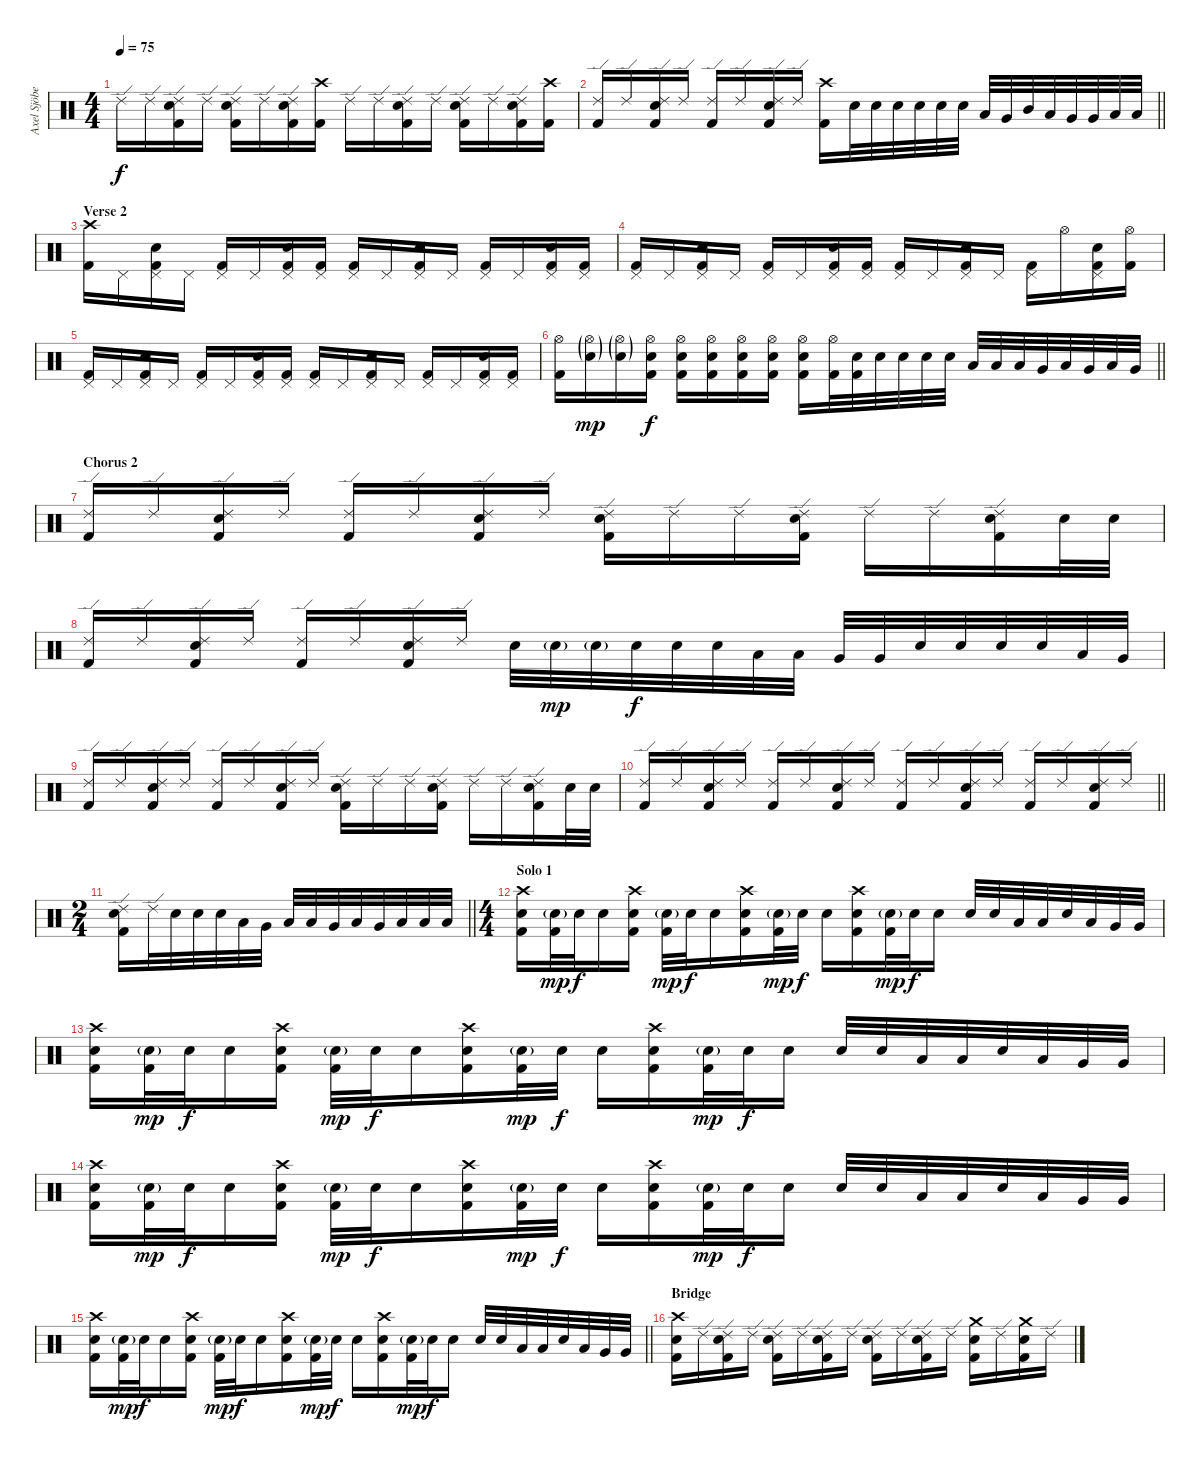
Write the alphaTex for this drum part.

\track ("Axel Sjöberg" "Axel Sjöbe") {instrument percussion}
\staff {score}
\articulation defaults
\ts (4 4)
\tempo 75
\clef neutral
\ks c "Ride (edge) 2".16{dy f} "Ride (edge) 2".16
("Kick (hit) 2" "Snare (hit) 2" "Ride (edge) 2").16 "Ride (edge) 2".16 ("Kick (hit) 2" "Snare (hit) 2" "Ride (edge) 2").16 "Ride (edge) 2".16 ("Kick (hit) 2" "Snare (hit) 2" "Ride (edge) 2").16 ("Kick (hit) 2" "Crash high (hit)").16 "Ride (edge) 2".16 "Ride (edge) 2".16 ("Kick (hit) 2" "Snare (hit) 2" "Ride (edge) 2").16 "Ride (edge) 2".16 ("Kick (hit) 2" "Snare (hit) 2" "Ride (edge) 2").16 "Ride (edge) 2".16 ("Kick (hit) 2" "Snare (hit) 2" "Ride (edge) 2").16 ("Kick (hit) 2" "Crash high (hit)").16 |
\barLineRight lightlight
("Kick (hit) 2" "Ride (edge) 2").16 "Ride (edge) 2".16 ("Kick (hit) 2" "Snare (hit) 2" "Ride (edge) 2").16 "Ride (edge) 2".16 ("Kick (hit) 2" "Ride (edge) 2").16 "Ride (edge) 2".16 ("Kick (hit) 2" "Snare (hit) 2" "Ride (edge) 2").16 "Ride (edge) 2".16 ("Kick (hit) 2" "Crash high (hit)").16 "Snare (hit) 2".32 "Snare (hit) 2".32 "Snare (hit) 2".32 "Snare (hit) 2".32 "Snare (hit) 2".32 "Snare (hit) 2".32 "Low Tom (hit)".32 "Very Low Tom (hit)".32 "Mid Tom (hit)".32 "Low Tom (hit)".32 "Very Low Tom (hit)".32 "Very Low Tom (hit)".32 "Low Floor Tom (hit)".32 "Low Floor Tom (hit)".32 |
\section ("" "Verse 2")
("Kick (hit) 2" "Crash high (hit)").16 "Pedal Hi-Hat (hit)".16 ("Kick (hit) 2" "Snare (hit) 2" "Pedal Hi-Hat (hit)").16 "Pedal Hi-Hat (hit)".16 ("Kick (hit) 2" "Pedal Hi-Hat (hit)").16 "Pedal Hi-Hat (hit)".16 ("Kick (hit) 2" "Snare (hit) 2" "Pedal Hi-Hat (hit)").16 ("Kick (hit) 2" "Pedal Hi-Hat (hit)").16 ("Kick (hit) 2" "Pedal Hi-Hat (hit)").16 "Pedal Hi-Hat (hit)".16 ("Kick (hit) 2" "Snare (hit) 2" "Pedal Hi-Hat (hit)").16 "Pedal Hi-Hat (hit)".16 ("Kick (hit) 2" "Pedal Hi-Hat (hit)").16 "Pedal Hi-Hat (hit)".16 ("Kick (hit) 2" "Snare (hit) 2" "Pedal Hi-Hat (hit)").16 ("Kick (hit) 2" "Pedal Hi-Hat (hit)").16 |
("Kick (hit) 2" "Pedal Hi-Hat (hit)").16 "Pedal Hi-Hat (hit)".16 ("Kick (hit) 2" "Snare (hit) 2" "Pedal Hi-Hat (hit)").16 "Pedal Hi-Hat (hit)".16 ("Kick (hit) 2" "Pedal Hi-Hat (hit)").16 "Pedal Hi-Hat (hit)".16 ("Kick (hit) 2" "Snare (hit) 2" "Pedal Hi-Hat (hit)").16 ("Kick (hit) 2" "Pedal Hi-Hat (hit)").16 ("Kick (hit) 2" "Pedal Hi-Hat (hit)").16 "Pedal Hi-Hat (hit)".16 ("Kick (hit) 2" "Snare (hit) 2" "Pedal Hi-Hat (hit)").16 "Pedal Hi-Hat (hit)".16 ("Kick (hit) 2" "Pedal Hi-Hat (hit)").16 "Hi-Hat (open)".16 ("Kick (hit) 2" "Snare (hit) 2" "Pedal Hi-Hat (hit)").16 ("Kick (hit) 2" "Hi-Hat (open)").16 |
("Kick (hit) 2" "Pedal Hi-Hat (hit)").16 "Pedal Hi-Hat (hit)".16 ("Kick (hit) 2" "Snare (hit) 2" "Pedal Hi-Hat (hit)").16 "Pedal Hi-Hat (hit)".16 ("Kick (hit) 2" "Pedal Hi-Hat (hit)").16 "Pedal Hi-Hat (hit)".16 ("Kick (hit) 2" "Snare (hit) 2" "Pedal Hi-Hat (hit)").16 ("Kick (hit) 2" "Pedal Hi-Hat (hit)").16 ("Kick (hit) 2" "Pedal Hi-Hat (hit)").16 "Pedal Hi-Hat (hit)".16 ("Kick (hit) 2" "Snare (hit) 2" "Pedal Hi-Hat (hit)").16 "Pedal Hi-Hat (hit)".16 ("Kick (hit) 2" "Pedal Hi-Hat (hit)").16 "Pedal Hi-Hat (hit)".16 ("Kick (hit) 2" "Snare (hit) 2" "Pedal Hi-Hat (hit)").16 ("Kick (hit) 2" "Pedal Hi-Hat (hit)").16 |
\barLineRight lightlight
("Kick (hit) 2" "Hi-Hat (open)").16 ("Snare (hit) 2"{g} "Hi-Hat (open)"{g}).16{dy mp} ("Snare (hit) 2"{g} "Hi-Hat (open)"{g}).16 ("Kick (hit) 2" "Snare (hit) 2" "Hi-Hat (open)").16{dy f} ("Kick (hit) 2" "Snare (hit) 2" "Hi-Hat (open)").16 ("Kick (hit) 2" "Snare (hit) 2" "Hi-Hat (open)").16 ("Kick (hit) 2" "Snare (hit) 2" "Hi-Hat (open)").16 ("Kick (hit) 2" "Snare (hit) 2" "Hi-Hat (open)").16 ("Kick (hit) 2" "Snare (hit) 2" "Hi-Hat (open)").16 ("Kick (hit) 2" "Hi-Hat (open)").32 ("Kick (hit) 2" "Snare (hit) 2").32 "Snare (hit) 2".32 "Snare (hit) 2".32 "Snare (hit) 2".32 "Snare (hit) 2".32 "Low Tom (hit)".32 "Low Floor Tom (hit)".32 "Low Tom (hit)".32 "Very Low Tom (hit)".32 "Low Tom (hit)".32 "Very Low Tom (hit)".32 "Low Floor Tom (hit)".32 "Very Low Tom (hit)".32 |
\section ("" "Chorus 2")
("Kick (hit) 2" "Ride (edge) 2").16 "Ride (edge) 2".16 ("Kick (hit) 2" "Snare (hit) 2" "Ride (edge) 2").16 "Ride (edge) 2".16 ("Kick (hit) 2" "Ride (edge) 2").16 "Ride (edge) 2".16 ("Kick (hit) 2" "Snare (hit) 2" "Ride (edge) 2").16 "Ride (edge) 2".16 ("Kick (hit) 2" "Snare (hit) 2" "Ride (edge) 2").16 "Ride (edge) 2".16 "Ride (edge) 2".16 ("Kick (hit) 2" "Snare (hit) 2" "Ride (edge) 2").16 "Ride (edge) 2".16 "Ride (edge) 2".16 ("Kick (hit) 2" "Snare (hit) 2" "Ride (edge) 2").16 "Snare (hit) 2".32 "Snare (hit) 2".32 |
("Kick (hit) 2" "Ride (edge) 2").16 "Ride (edge) 2".16 ("Kick (hit) 2" "Snare (hit) 2" "Ride (edge) 2").16 "Ride (edge) 2".16 ("Kick (hit) 2" "Ride (edge) 2").16 "Ride (edge) 2".16 ("Kick (hit) 2" "Snare (hit) 2" "Ride (edge) 2").16 "Ride (edge) 2".16 "Snare (hit) 2".32 "Snare (hit) 2"{g}.32{dy mp} "Snare (hit) 2"{g}.32 "Snare (hit) 2".32{dy f} "Snare (hit) 2".32 "Snare (hit) 2".32 "Low Tom (hit)".32 "Low Floor Tom (hit)".32 "Very Low Tom (hit)".32 "Very Low Tom (hit)".32 "Snare (hit) 2".32 "Snare (hit) 2".32 "Snare (hit) 2".32 "Snare (hit) 2".32 "Low Tom (hit)".32 "Very Low Tom (hit)".32 |
("Kick (hit) 2" "Ride (edge) 2").16 "Ride (edge) 2".16 ("Kick (hit) 2" "Snare (hit) 2" "Ride (edge) 2").16 "Ride (edge) 2".16 ("Kick (hit) 2" "Ride (edge) 2").16 "Ride (edge) 2".16 ("Kick (hit) 2" "Snare (hit) 2" "Ride (edge) 2").16 "Ride (edge) 2".16 ("Kick (hit) 2" "Snare (hit) 2" "Ride (edge) 2").16 "Ride (edge) 2".16 "Ride (edge) 2".16 ("Kick (hit) 2" "Snare (hit) 2" "Ride (edge) 2").16 "Ride (edge) 2".16 "Ride (edge) 2".16 ("Kick (hit) 2" "Snare (hit) 2" "Ride (edge) 2").16 "Snare (hit) 2".32 "Snare (hit) 2".32 |
\barLineRight lightlight
("Kick (hit) 2" "Ride (edge) 2").16 "Ride (edge) 2".16 ("Kick (hit) 2" "Snare (hit) 2" "Ride (edge) 2").16 "Ride (edge) 2".16 ("Kick (hit) 2" "Ride (edge) 2").16 "Ride (edge) 2".16 ("Kick (hit) 2" "Snare (hit) 2" "Ride (edge) 2").16 "Ride (edge) 2".16 ("Kick (hit) 2" "Ride (edge) 2").16 "Ride (edge) 2".16 ("Kick (hit) 2" "Snare (hit) 2" "Ride (edge) 2").16 "Ride (edge) 2".16 ("Kick (hit) 2" "Ride (edge) 2").16 "Ride (edge) 2".16 ("Kick (hit) 2" "Snare (hit) 2" "Ride (edge) 2").16 "Ride (edge) 2".16 |
\ts (2 4)
\barLineRight lightlight
("Kick (hit) 2" "Snare (hit) 2" "Ride (edge) 2").16 "Ride (edge) 2".32 "Snare (hit) 2".32 "Snare (hit) 2".32 "Snare (hit) 2".32 "Low Tom (hit)".32 "Very Low Tom (hit)".32 "Low Floor Tom (hit)".32 "Low Tom (hit)".32 "Very Low Tom (hit)".32 "Low Tom (hit)".32 "Very Low Tom (hit)".32 "Low Floor Tom (hit)".32 "Low Floor Tom (hit)".32 "Low Floor Tom (hit)".32 |
\ts (4 4)
\section ("" "Solo 1")
("Kick (hit) 2" "Snare (hit) 2" "Crash high (hit)").16 ("Kick (hit) 2" "Snare (hit) 2"{g}).32{dy mp} "Snare (hit) 2".32{dy f} "Snare (hit) 2".16 ("Kick (hit) 2" "Snare (hit) 2" "Crash high (hit)").16 ("Kick (hit) 2" "Snare (hit) 2"{g}).32{dy mp} "Snare (hit) 2".32{dy f} "Snare (hit) 2".16 ("Kick (hit) 2" "Snare (hit) 2" "Crash high (hit)").16 ("Kick (hit) 2" "Snare (hit) 2"{g}).32{dy mp} "Snare (hit) 2".32{dy f} "Snare (hit) 2".16 ("Kick (hit) 2" "Snare (hit) 2" "Crash high (hit)").16 ("Kick (hit) 2" "Snare (hit) 2"{g}).32{dy mp} "Snare (hit) 2".32{dy f} "Snare (hit) 2".16 "Snare (hit) 2".32 "Snare (hit) 2".32 "Low Tom (hit)".32 "Low Tom (hit)".32 "Snare (hit) 2".32 "Low Tom (hit)".32 "Very Low Tom (hit)".32 "Very Low Tom (hit)".32 |
("Kick (hit) 2" "Snare (hit) 2" "Crash high (hit)").16 ("Kick (hit) 2" "Snare (hit) 2"{g}).32{dy mp} "Snare (hit) 2".32{dy f} "Snare (hit) 2".16 ("Kick (hit) 2" "Snare (hit) 2" "Crash high (hit)").16 ("Kick (hit) 2" "Snare (hit) 2"{g}).32{dy mp} "Snare (hit) 2".32{dy f} "Snare (hit) 2".16 ("Kick (hit) 2" "Snare (hit) 2" "Crash high (hit)").16 ("Kick (hit) 2" "Snare (hit) 2"{g}).32{dy mp} "Snare (hit) 2".32{dy f} "Snare (hit) 2".16 ("Kick (hit) 2" "Snare (hit) 2" "Crash high (hit)").16 ("Kick (hit) 2" "Snare (hit) 2"{g}).32{dy mp} "Snare (hit) 2".32{dy f} "Snare (hit) 2".16 "Snare (hit) 2".32 "Snare (hit) 2".32 "Low Tom (hit)".32 "Low Tom (hit)".32 "Snare (hit) 2".32 "Low Tom (hit)".32 "Very Low Tom (hit)".32 "Very Low Tom (hit)".32 |
("Kick (hit) 2" "Snare (hit) 2" "Crash high (hit)").16 ("Kick (hit) 2" "Snare (hit) 2"{g}).32{dy mp} "Snare (hit) 2".32{dy f} "Snare (hit) 2".16 ("Kick (hit) 2" "Snare (hit) 2" "Crash high (hit)").16 ("Kick (hit) 2" "Snare (hit) 2"{g}).32{dy mp} "Snare (hit) 2".32{dy f} "Snare (hit) 2".16 ("Kick (hit) 2" "Snare (hit) 2" "Crash high (hit)").16 ("Kick (hit) 2" "Snare (hit) 2"{g}).32{dy mp} "Snare (hit) 2".32{dy f} "Snare (hit) 2".16 ("Kick (hit) 2" "Snare (hit) 2" "Crash high (hit)").16 ("Kick (hit) 2" "Snare (hit) 2"{g}).32{dy mp} "Snare (hit) 2".32{dy f} "Snare (hit) 2".16 "Snare (hit) 2".32 "Snare (hit) 2".32 "Low Tom (hit)".32 "Low Tom (hit)".32 "Snare (hit) 2".32 "Low Tom (hit)".32 "Very Low Tom (hit)".32 "Very Low Tom (hit)".32 |
\barLineRight lightlight
("Kick (hit) 2" "Snare (hit) 2" "Crash high (hit)").16 ("Kick (hit) 2" "Snare (hit) 2"{g}).32{dy mp} "Snare (hit) 2".32{dy f} "Snare (hit) 2".16 ("Kick (hit) 2" "Snare (hit) 2" "Crash high (hit)").16 ("Kick (hit) 2" "Snare (hit) 2"{g}).32{dy mp} "Snare (hit) 2".32{dy f} "Snare (hit) 2".16 ("Kick (hit) 2" "Snare (hit) 2" "Crash high (hit)").16 ("Kick (hit) 2" "Snare (hit) 2"{g}).32{dy mp} "Snare (hit) 2".32{dy f} "Snare (hit) 2".16 ("Kick (hit) 2" "Snare (hit) 2" "Crash high (hit)").16 ("Kick (hit) 2" "Snare (hit) 2"{g}).32{dy mp} "Snare (hit) 2".32{dy f} "Snare (hit) 2".16 "Snare (hit) 2".32 "Snare (hit) 2".32 "Low Tom (hit)".32 "Low Tom (hit)".32 "Snare (hit) 2".32 "Low Tom (hit)".32 "Very Low Tom (hit)".32 "Very Low Tom (hit)".32 |
\section ("" "Bridge")
("Kick (hit) 2" "Snare (hit) 2" "Crash high (hit)").16 "Ride (edge) 2".16 ("Kick (hit) 2" "Snare (hit) 2" "Ride (edge) 2").16 "Ride (edge) 2".16 ("Kick (hit) 2" "Snare (hit) 2" "Ride (edge) 2").16 "Ride (edge) 2".16 ("Kick (hit) 2" "Snare (hit) 2" "Ride (edge) 2").16 "Ride (edge) 2".16 ("Kick (hit) 2" "Snare (hit) 2" "Ride (edge) 2").16 "Ride (edge) 2".16 ("Kick (hit) 2" "Snare (hit) 2" "Ride (edge) 2").16 "Ride (edge) 2".16 ("Kick (hit) 2" "Snare (hit) 2" "Crash medium (hit)").16 "Ride (edge) 2".16 ("Kick (hit) 2" "Snare (hit) 2" "Crash medium (hit)").16 "Ride (edge) 2".16
